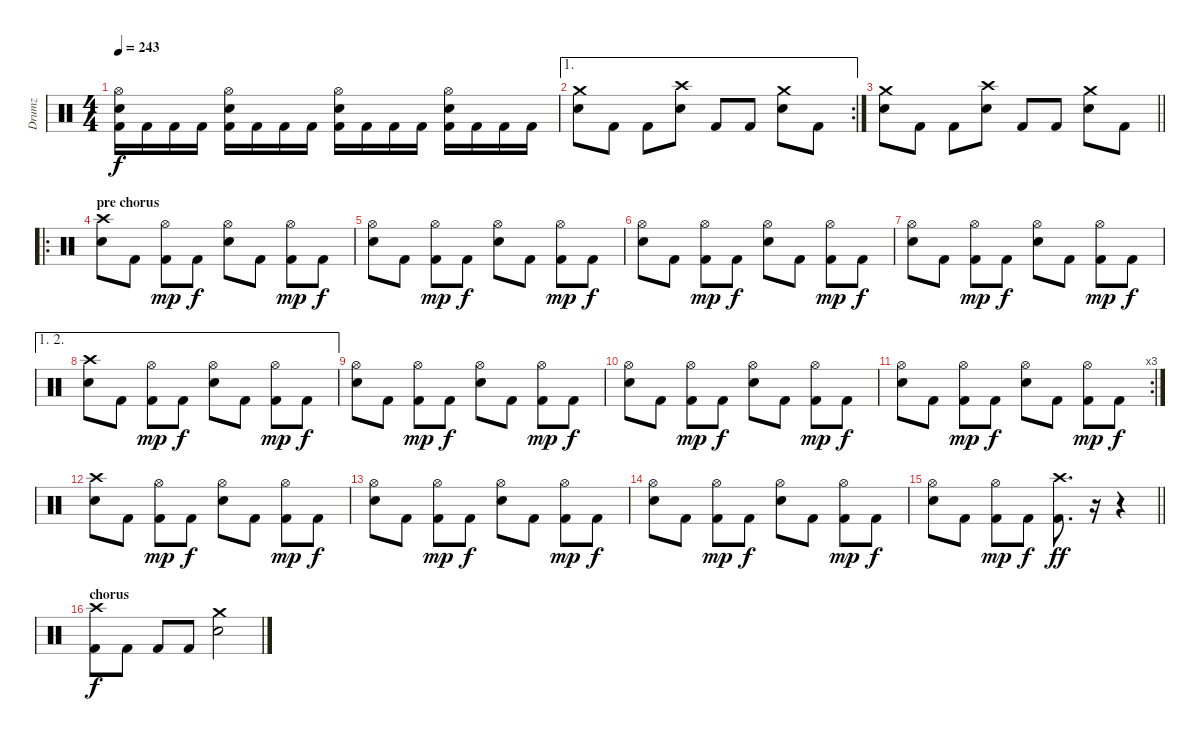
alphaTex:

\track ("Drumz" "Drumz") {instrument percussion}
\staff {score}
\articulation defaults
\ts (4 4)
\tempo 243
\clef neutral
\ks c
("Hi-Hat (open)" "Electric Snare (hit)" "Kick (hit) 2").16{dy f} "Kick (hit) 2".16 "Kick (hit) 2".16 "Kick (hit) 2".16 ("Hi-Hat (open)" "Electric Snare (hit)" "Kick (hit) 2").16 "Kick (hit) 2".16 "Kick (hit) 2".16 "Kick (hit) 2".16 ("Hi-Hat (open)" "Electric Snare (hit)" "Kick (hit) 2").16 "Kick (hit) 2".16 "Kick (hit) 2".16 "Kick (hit) 2".16 ("Hi-Hat (open)" "Electric Snare (hit)" "Kick (hit) 2").16 "Kick (hit) 2".16 "Kick (hit) 2".16 "Kick (hit) 2".16 |
\ae 1
\rc 2
("Crash medium (hit)" "Electric Snare (hit)").8 "Kick (hit) 2".8 "Kick (hit) 2".8 ("Crash high (hit)" "Electric Snare (hit)").8 "Kick (hit) 2".8 "Kick (hit) 2".8 ("Crash medium (hit)" "Electric Snare (hit)").8 "Kick (hit) 2".8 |
\barLineRight lightlight
("Crash medium (hit)" "Electric Snare (hit)").8 "Kick (hit) 2".8 "Kick (hit) 2".8 ("Crash high (hit)" "Electric Snare (hit)").8 "Kick (hit) 2".8 "Kick (hit) 2".8 ("Crash medium (hit)" "Electric Snare (hit)").8 "Kick (hit) 2".8 |
\ro
\section ("" "pre chorus")
("Crash high (hit)" "Electric Snare (hit)").8 "Kick (hit) 2".8 ("Hi-Hat (open)" "Kick (hit) 2").8{dy mp} "Kick (hit) 2".8{dy f} ("Hi-Hat (open)" "Electric Snare (hit)").8 "Kick (hit) 2".8 ("Hi-Hat (open)" "Kick (hit) 2").8{dy mp} "Kick (hit) 2".8{dy f} |
("Hi-Hat (open)" "Electric Snare (hit)").8 "Kick (hit) 2".8 ("Hi-Hat (open)" "Kick (hit) 2").8{dy mp} "Kick (hit) 2".8{dy f} ("Hi-Hat (open)" "Electric Snare (hit)").8 "Kick (hit) 2".8 ("Hi-Hat (open)" "Kick (hit) 2").8{dy mp} "Kick (hit) 2".8{dy f} |
("Hi-Hat (open)" "Electric Snare (hit)").8 "Kick (hit) 2".8 ("Hi-Hat (open)" "Kick (hit) 2").8{dy mp} "Kick (hit) 2".8{dy f} ("Hi-Hat (open)" "Electric Snare (hit)").8 "Kick (hit) 2".8 ("Hi-Hat (open)" "Kick (hit) 2").8{dy mp} "Kick (hit) 2".8{dy f} |
("Hi-Hat (open)" "Electric Snare (hit)").8 "Kick (hit) 2".8 ("Hi-Hat (open)" "Kick (hit) 2").8{dy mp} "Kick (hit) 2".8{dy f} ("Hi-Hat (open)" "Electric Snare (hit)").8 "Kick (hit) 2".8 ("Hi-Hat (open)" "Kick (hit) 2").8{dy mp} "Kick (hit) 2".8{dy f} |
\ae (1 2)
("Crash high (hit)" "Electric Snare (hit)").8 "Kick (hit) 2".8 ("Hi-Hat (open)" "Kick (hit) 2").8{dy mp} "Kick (hit) 2".8{dy f} ("Hi-Hat (open)" "Electric Snare (hit)").8 "Kick (hit) 2".8 ("Hi-Hat (open)" "Kick (hit) 2").8{dy mp} "Kick (hit) 2".8{dy f} |
("Hi-Hat (open)" "Electric Snare (hit)").8 "Kick (hit) 2".8 ("Hi-Hat (open)" "Kick (hit) 2").8{dy mp} "Kick (hit) 2".8{dy f} ("Hi-Hat (open)" "Electric Snare (hit)").8 "Kick (hit) 2".8 ("Hi-Hat (open)" "Kick (hit) 2").8{dy mp} "Kick (hit) 2".8{dy f} |
("Hi-Hat (open)" "Electric Snare (hit)").8 "Kick (hit) 2".8 ("Hi-Hat (open)" "Kick (hit) 2").8{dy mp} "Kick (hit) 2".8{dy f} ("Hi-Hat (open)" "Electric Snare (hit)").8 "Kick (hit) 2".8 ("Hi-Hat (open)" "Kick (hit) 2").8{dy mp} "Kick (hit) 2".8{dy f} |
\rc 3
("Hi-Hat (open)" "Electric Snare (hit)").8 "Kick (hit) 2".8 ("Hi-Hat (open)" "Kick (hit) 2").8{dy mp} "Kick (hit) 2".8{dy f} ("Hi-Hat (open)" "Electric Snare (hit)").8 "Kick (hit) 2".8 ("Hi-Hat (open)" "Kick (hit) 2").8{dy mp} "Kick (hit) 2".8{dy f} |
("Crash high (hit)" "Electric Snare (hit)").8 "Kick (hit) 2".8 ("Hi-Hat (open)" "Kick (hit) 2").8{dy mp} "Kick (hit) 2".8{dy f} ("Hi-Hat (open)" "Electric Snare (hit)").8 "Kick (hit) 2".8 ("Hi-Hat (open)" "Kick (hit) 2").8{dy mp} "Kick (hit) 2".8{dy f} |
("Hi-Hat (open)" "Electric Snare (hit)").8 "Kick (hit) 2".8 ("Hi-Hat (open)" "Kick (hit) 2").8{dy mp} "Kick (hit) 2".8{dy f} ("Hi-Hat (open)" "Electric Snare (hit)").8 "Kick (hit) 2".8 ("Hi-Hat (open)" "Kick (hit) 2").8{dy mp} "Kick (hit) 2".8{dy f} |
("Hi-Hat (open)" "Electric Snare (hit)").8 "Kick (hit) 2".8 ("Hi-Hat (open)" "Kick (hit) 2").8{dy mp} "Kick (hit) 2".8{dy f} ("Hi-Hat (open)" "Electric Snare (hit)").8 "Kick (hit) 2".8 ("Hi-Hat (open)" "Kick (hit) 2").8{dy mp} "Kick (hit) 2".8{dy f} |
\barLineRight lightlight
("Hi-Hat (open)" "Electric Snare (hit)").8 "Kick (hit) 2".8 ("Hi-Hat (open)" "Kick (hit) 2").8{dy mp} "Kick (hit) 2".8{dy f} ("Crash high (hit)" "Kick (hit) 2").8{d dy ff} r.16{volume 0} r.4 |
\section ("" "chorus")
("Crash high (hit)" "Kick (hit) 2").8{dy f volume 16} "Kick (hit) 2".8 "Kick (hit) 2".8 "Kick (hit) 2".8 ("Crash medium (hit)" "Electric Snare (hit)").2
